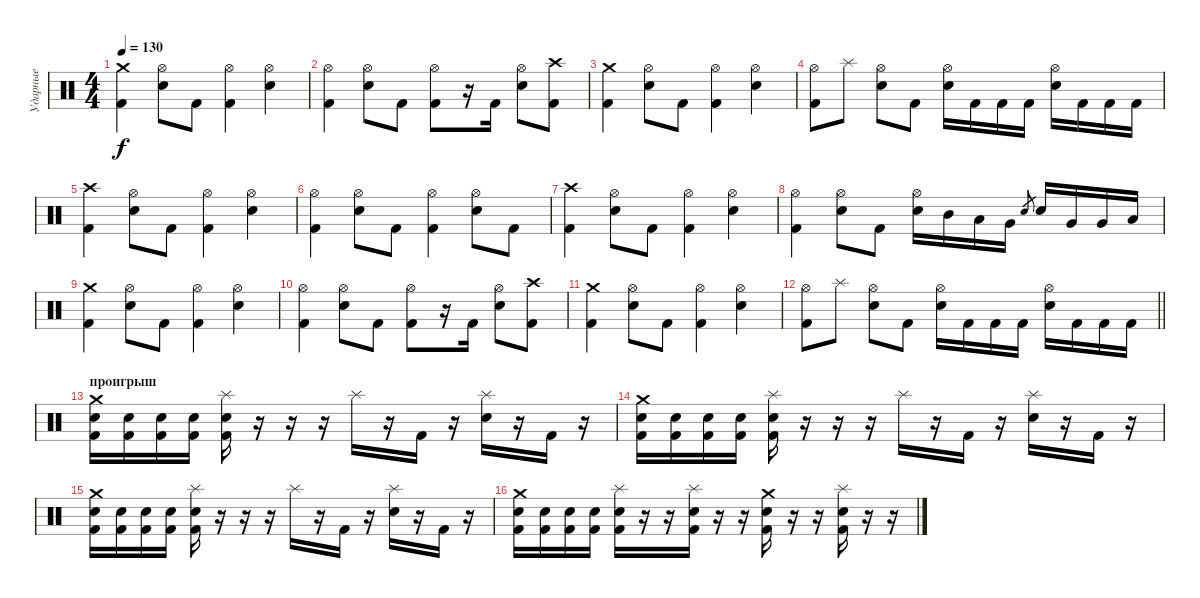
\track ("Ударные" "Ударные") {instrument percussion}
\staff {score}
\articulation defaults
\ts (4 4)
\tempo 130
\clef neutral
\ks c
("Crash medium (hit)" "Kick (hit) 2").4{dy f} ("Hi-Hat (open)" "Electric Snare (hit)").8 "Kick (hit) 2".8 ("Hi-Hat (open)" "Kick (hit) 2").4 ("Hi-Hat (open)" "Electric Snare (hit)").4 |
("Hi-Hat (open)" "Kick (hit) 2").4 ("Hi-Hat (open)" "Electric Snare (hit)").8 "Kick (hit) 2".8 ("Hi-Hat (open)" "Kick (hit) 2").8 r.16 "Kick (hit) 2".16 ("Hi-Hat (open)" "Electric Snare (hit)").8 ("Crash high (hit)" "Kick (hit) 2").8 |
("Crash medium (hit)" "Kick (hit) 2").4 ("Hi-Hat (open)" "Electric Snare (hit)").8 "Kick (hit) 2".8 ("Hi-Hat (open)" "Kick (hit) 2").4 ("Hi-Hat (open)" "Electric Snare (hit)").4 |
("Hi-Hat (open)" "Kick (hit) 2").8 "Splash (hit)".8 ("Hi-Hat (open)" "Electric Snare (hit)").8 "Kick (hit) 2".8 ("Hi-Hat (open)" "Electric Snare (hit)").16 "Kick (hit) 2".16 "Kick (hit) 2".16 "Kick (hit) 2".16 ("Hi-Hat (open)" "Electric Snare (hit)").16 "Kick (hit) 2".16 "Kick (hit) 2".16 "Kick (hit) 2".16 |
("Crash high (hit)" "Kick (hit) 2").4 ("Hi-Hat (open)" "Electric Snare (hit)").8 "Kick (hit) 2".8 ("Hi-Hat (open)" "Kick (hit) 2").4 ("Hi-Hat (open)" "Electric Snare (hit)").4 |
("Hi-Hat (open)" "Kick (hit) 2").4 ("Hi-Hat (open)" "Electric Snare (hit)").8 "Kick (hit) 2".8 ("Hi-Hat (open)" "Kick (hit) 2").4 ("Hi-Hat (open)" "Electric Snare (hit)").8 "Kick (hit) 2".8 |
("Crash high (hit)" "Kick (hit) 2").4 ("Hi-Hat (open)" "Electric Snare (hit)").8 "Kick (hit) 2".8 ("Hi-Hat (open)" "Kick (hit) 2").4 ("Hi-Hat (open)" "Electric Snare (hit)").4 |
("Hi-Hat (open)" "Kick (hit) 2").4 ("Hi-Hat (open)" "Electric Snare (hit)").8 "Kick (hit) 2".8 ("Hi-Hat (open)" "Electric Snare (hit)").16 "Mid Tom (hit)".16 "Low Tom (hit)".16 "Very Low Tom (hit)".16 "Electric Snare (hit)".8{gr} "Electric Snare (hit)".16 "Very Low Tom (hit)".16 "Very Low Tom (hit)".16 "Low Floor Tom (hit)".16 |
("Crash medium (hit)" "Kick (hit) 2").4 ("Hi-Hat (open)" "Electric Snare (hit)").8 "Kick (hit) 2".8 ("Hi-Hat (open)" "Kick (hit) 2").4 ("Hi-Hat (open)" "Electric Snare (hit)").4 |
("Hi-Hat (open)" "Kick (hit) 2").4 ("Hi-Hat (open)" "Electric Snare (hit)").8 "Kick (hit) 2".8 ("Hi-Hat (open)" "Kick (hit) 2").8 r.16 "Kick (hit) 2".16 ("Hi-Hat (open)" "Electric Snare (hit)").8 ("Crash high (hit)" "Kick (hit) 2").8 |
("Crash medium (hit)" "Kick (hit) 2").4 ("Hi-Hat (open)" "Electric Snare (hit)").8 "Kick (hit) 2".8 ("Hi-Hat (open)" "Kick (hit) 2").4 ("Hi-Hat (open)" "Electric Snare (hit)").4 |
\barLineRight lightlight
("Hi-Hat (open)" "Kick (hit) 2").8 "Splash (hit)".8 ("Hi-Hat (open)" "Electric Snare (hit)").8 "Kick (hit) 2".8 ("Hi-Hat (open)" "Electric Snare (hit)").16 "Kick (hit) 2".16 "Kick (hit) 2".16 "Kick (hit) 2".16 ("Hi-Hat (open)" "Electric Snare (hit)").16 "Kick (hit) 2".16 "Kick (hit) 2".16 "Kick (hit) 2".16 |
\section ("" "проигрыш")
("Crash medium (hit)" "Electric Snare (hit)" "Kick (hit) 2").16 ("Electric Snare (hit)" "Kick (hit) 2").16 ("Electric Snare (hit)" "Kick (hit) 2").16 ("Electric Snare (hit)" "Kick (hit) 2").16 ("Splash (hit)" "Electric Snare (hit)" "Kick (hit) 2").16 r.16 r.16 r.16 "Splash (hit)".16 r.16 "Kick (hit) 2".16 r.16 ("Splash (hit)" "Electric Snare (hit)").16 r.16 "Kick (hit) 2".16 r.16 |
("Crash medium (hit)" "Electric Snare (hit)" "Kick (hit) 2").16 ("Electric Snare (hit)" "Kick (hit) 2").16 ("Electric Snare (hit)" "Kick (hit) 2").16 ("Electric Snare (hit)" "Kick (hit) 2").16 ("Splash (hit)" "Electric Snare (hit)" "Kick (hit) 2").16 r.16 r.16 r.16 "Splash (hit)".16 r.16 "Kick (hit) 2".16 r.16 ("Splash (hit)" "Electric Snare (hit)").16 r.16 "Kick (hit) 2".16 r.16 |
("Crash medium (hit)" "Electric Snare (hit)" "Kick (hit) 2").16 ("Electric Snare (hit)" "Kick (hit) 2").16 ("Electric Snare (hit)" "Kick (hit) 2").16 ("Electric Snare (hit)" "Kick (hit) 2").16 ("Splash (hit)" "Electric Snare (hit)" "Kick (hit) 2").16 r.16 r.16 r.16 "Splash (hit)".16 r.16 "Kick (hit) 2".16 r.16 ("Splash (hit)" "Electric Snare (hit)").16 r.16 "Kick (hit) 2".16 r.16 |
("Crash medium (hit)" "Electric Snare (hit)" "Kick (hit) 2").16 ("Electric Snare (hit)" "Kick (hit) 2").16 ("Electric Snare (hit)" "Kick (hit) 2").16 ("Electric Snare (hit)" "Kick (hit) 2").16 ("Splash (hit)" "Electric Snare (hit)" "Kick (hit) 2").16 r.16 r.16 ("Splash (hit)" "Electric Snare (hit)" "Kick (hit) 2").16 r.16 r.16 ("Crash medium (hit)" "Electric Snare (hit)" "Kick (hit) 2").16 r.16 r.16 ("Splash (hit)" "Electric Snare (hit)" "Kick (hit) 2").16 r.16 r.16
